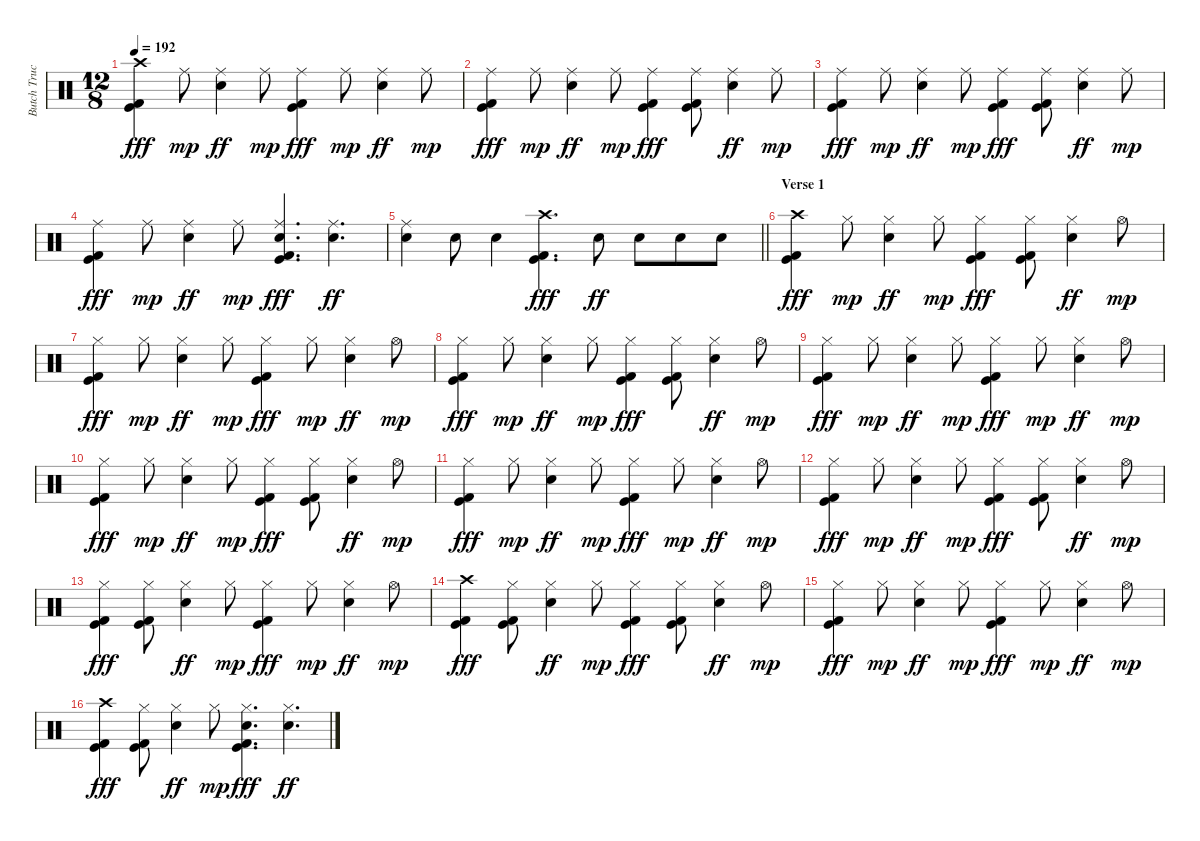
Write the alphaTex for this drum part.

\track ("Butch Trucks, Jaimoe - Drums" "Butch Truc") {instrument percussion}
\staff {score}
\articulation defaults
\ts (12 8)
\tempo 192
\clef neutral
\ks c
("Crash high (hit)" "Kick (hit)" "Kick (hit) 2").4{dy fff} "Ride (middle)".8{dy mp} ("Ride (middle)" "Snare (hit) 2").4{dy ff} "Ride (middle)".8{dy mp} ("Ride (middle)" "Kick (hit)" "Kick (hit) 2").4{dy fff} "Ride (middle)".8{dy mp} ("Ride (middle)" "Snare (hit) 2").4{dy ff} "Ride (middle)".8{dy mp} |
("Ride (middle)" "Kick (hit)" "Kick (hit) 2").4{dy fff} "Ride (middle)".8{dy mp} ("Ride (middle)" "Snare (hit) 2").4{dy ff} "Ride (middle)".8{dy mp} ("Ride (middle)" "Kick (hit)" "Kick (hit) 2").4{dy fff} ("Ride (middle)" "Kick (hit)" "Kick (hit) 2").8 ("Ride (middle)" "Snare (hit) 2").4{dy ff} "Ride (middle)".8{dy mp} |
("Ride (middle)" "Kick (hit)" "Kick (hit) 2").4{dy fff} "Ride (middle)".8{dy mp} ("Ride (middle)" "Snare (hit) 2").4{dy ff} "Ride (middle)".8{dy mp} ("Ride (middle)" "Kick (hit)" "Kick (hit) 2").4{dy fff} ("Ride (middle)" "Kick (hit)" "Kick (hit) 2").8 ("Ride (middle)" "Snare (hit) 2").4{dy ff} "Ride (middle)".8{dy mp} |
("Ride (middle)" "Kick (hit)" "Kick (hit) 2").4{dy fff} "Ride (middle)".8{dy mp} ("Ride (middle)" "Snare (hit) 2").4{dy ff} "Ride (middle)".8{dy mp} ("Ride (middle)" "Snare (hit) 2" "Kick (hit)" "Kick (hit) 2").4{d dy fff} ("Ride (middle)" "Snare (hit) 2").4{d dy ff} |
\barLineRight lightlight
("Ride (middle)" "Snare (hit) 2").4 "Snare (hit) 2".8 "Snare (hit) 2".4 ("Crash high (hit)" "Kick (hit)" "Kick (hit) 2").4{d dy fff} "Snare (hit) 2".8{dy ff} "Snare (hit) 2".8 "Snare (hit) 2".8 "Snare (hit) 2".8 |
\section ("" "Verse 1")
("Crash high (hit)" "Kick (hit)" "Kick (hit) 2").4{dy fff} "Hi-Hat (closed)".8{dy mp} ("Hi-Hat (closed)" "Snare (hit) 2").4{dy ff} "Hi-Hat (closed)".8{dy mp} ("Hi-Hat (closed)" "Kick (hit)" "Kick (hit) 2").4{dy fff} ("Hi-Hat (closed)" "Kick (hit)" "Kick (hit) 2").8 ("Hi-Hat (closed)" "Snare (hit) 2").4{dy ff} "Hi-Hat (open)".8{dy mp} |
("Hi-Hat (closed)" "Kick (hit)" "Kick (hit) 2").4{dy fff} "Hi-Hat (closed)".8{dy mp} ("Hi-Hat (closed)" "Snare (hit) 2").4{dy ff} "Hi-Hat (closed)".8{dy mp} ("Hi-Hat (closed)" "Kick (hit)" "Kick (hit) 2").4{dy fff} "Hi-Hat (closed)".8{dy mp} ("Hi-Hat (closed)" "Snare (hit) 2").4{dy ff} "Hi-Hat (open)".8{dy mp} |
("Hi-Hat (closed)" "Kick (hit)" "Kick (hit) 2").4{dy fff} "Hi-Hat (closed)".8{dy mp} ("Hi-Hat (closed)" "Snare (hit) 2").4{dy ff} "Hi-Hat (closed)".8{dy mp} ("Hi-Hat (closed)" "Kick (hit)" "Kick (hit) 2").4{dy fff} ("Hi-Hat (closed)" "Kick (hit)" "Kick (hit) 2").8 ("Hi-Hat (closed)" "Snare (hit) 2").4{dy ff} "Hi-Hat (open)".8{dy mp} |
("Hi-Hat (closed)" "Kick (hit)" "Kick (hit) 2").4{dy fff} "Hi-Hat (closed)".8{dy mp} ("Hi-Hat (closed)" "Snare (hit) 2").4{dy ff} "Hi-Hat (closed)".8{dy mp} ("Hi-Hat (closed)" "Kick (hit)" "Kick (hit) 2").4{dy fff} "Hi-Hat (closed)".8{dy mp} ("Hi-Hat (closed)" "Snare (hit) 2").4{dy ff} "Hi-Hat (open)".8{dy mp} |
("Hi-Hat (closed)" "Kick (hit)" "Kick (hit) 2").4{dy fff} "Hi-Hat (closed)".8{dy mp} ("Hi-Hat (closed)" "Snare (hit) 2").4{dy ff} "Hi-Hat (closed)".8{dy mp} ("Hi-Hat (closed)" "Kick (hit)" "Kick (hit) 2").4{dy fff} ("Hi-Hat (closed)" "Kick (hit)" "Kick (hit) 2").8 ("Hi-Hat (closed)" "Snare (hit) 2").4{dy ff} "Hi-Hat (open)".8{dy mp} |
("Hi-Hat (closed)" "Kick (hit)" "Kick (hit) 2").4{dy fff} "Hi-Hat (closed)".8{dy mp} ("Hi-Hat (closed)" "Snare (hit) 2").4{dy ff} "Hi-Hat (closed)".8{dy mp} ("Hi-Hat (closed)" "Kick (hit)" "Kick (hit) 2").4{dy fff} "Hi-Hat (closed)".8{dy mp} ("Hi-Hat (closed)" "Snare (hit) 2").4{dy ff} "Hi-Hat (open)".8{dy mp} |
("Hi-Hat (closed)" "Kick (hit)" "Kick (hit) 2").4{dy fff} "Hi-Hat (closed)".8{dy mp} ("Hi-Hat (closed)" "Snare (hit) 2").4{dy ff} "Hi-Hat (closed)".8{dy mp} ("Hi-Hat (closed)" "Kick (hit)" "Kick (hit) 2").4{dy fff} ("Hi-Hat (closed)" "Kick (hit)" "Kick (hit) 2").8 ("Hi-Hat (closed)" "Snare (hit) 2").4{dy ff} "Hi-Hat (open)".8{dy mp} |
("Hi-Hat (closed)" "Kick (hit)" "Kick (hit) 2").4{dy fff} ("Hi-Hat (closed)" "Kick (hit)" "Kick (hit) 2").8 ("Hi-Hat (closed)" "Snare (hit) 2").4{dy ff} "Hi-Hat (closed)".8{dy mp} ("Hi-Hat (closed)" "Kick (hit)" "Kick (hit) 2").4{dy fff} "Hi-Hat (closed)".8{dy mp} ("Hi-Hat (closed)" "Snare (hit) 2").4{dy ff} "Hi-Hat (open)".8{dy mp} |
("Crash high (hit)" "Kick (hit)" "Kick (hit) 2").4{dy fff} ("Hi-Hat (closed)" "Kick (hit)" "Kick (hit) 2").8 ("Hi-Hat (closed)" "Snare (hit) 2").4{dy ff} "Hi-Hat (closed)".8{dy mp} ("Hi-Hat (closed)" "Kick (hit)" "Kick (hit) 2").4{dy fff} ("Hi-Hat (closed)" "Kick (hit)" "Kick (hit) 2").8 ("Hi-Hat (closed)" "Snare (hit) 2").4{dy ff} "Hi-Hat (open)".8{dy mp} |
("Hi-Hat (closed)" "Kick (hit)" "Kick (hit) 2").4{dy fff} "Hi-Hat (closed)".8{dy mp} ("Hi-Hat (closed)" "Snare (hit) 2").4{dy ff} "Hi-Hat (closed)".8{dy mp} ("Hi-Hat (closed)" "Kick (hit)" "Kick (hit) 2").4{dy fff} "Hi-Hat (closed)".8{dy mp} ("Hi-Hat (closed)" "Snare (hit) 2").4{dy ff} "Hi-Hat (open)".8{dy mp} |
("Crash high (hit)" "Kick (hit)" "Kick (hit) 2").4{dy fff} ("Hi-Hat (closed)" "Kick (hit)" "Kick (hit) 2").8 ("Hi-Hat (closed)" "Snare (hit) 2").4{dy ff} "Hi-Hat (closed)".8{dy mp} ("Hi-Hat (closed)" "Snare (hit) 2" "Kick (hit)" "Kick (hit) 2").4{d dy fff} ("Hi-Hat (closed)" "Snare (hit) 2").4{d dy ff}
